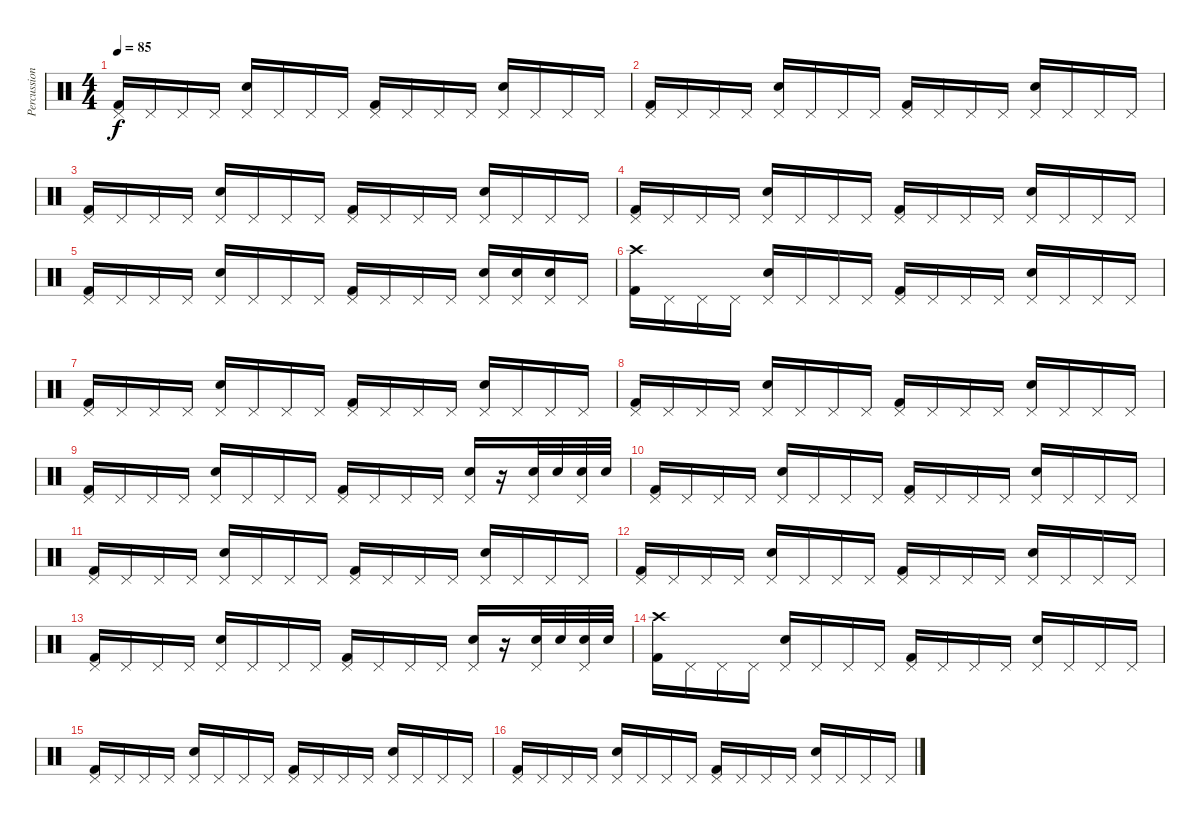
\track ("Percussions" "Percussion") {instrument percussion}
\staff {score}
\articulation defaults
\ts (4 4)
\tempo 85
\clef neutral
\ks c
("Pedal Hi-Hat (hit)" "Kick (hit) 2").16{dy f} "Pedal Hi-Hat (hit)".16 "Pedal Hi-Hat (hit)".16 "Pedal Hi-Hat (hit)".16 ("Pedal Hi-Hat (hit)" "Snare (hit) 2").16 "Pedal Hi-Hat (hit)".16 "Pedal Hi-Hat (hit)".16 "Pedal Hi-Hat (hit)".16 ("Pedal Hi-Hat (hit)" "Kick (hit) 2").16 "Pedal Hi-Hat (hit)".16 "Pedal Hi-Hat (hit)".16 "Pedal Hi-Hat (hit)".16 ("Pedal Hi-Hat (hit)" "Snare (hit) 2").16 "Pedal Hi-Hat (hit)".16 "Pedal Hi-Hat (hit)".16 "Pedal Hi-Hat (hit)".16 |
("Pedal Hi-Hat (hit)" "Kick (hit) 2").16 "Pedal Hi-Hat (hit)".16 "Pedal Hi-Hat (hit)".16 "Pedal Hi-Hat (hit)".16 ("Pedal Hi-Hat (hit)" "Snare (hit) 2").16 "Pedal Hi-Hat (hit)".16 "Pedal Hi-Hat (hit)".16 "Pedal Hi-Hat (hit)".16 ("Pedal Hi-Hat (hit)" "Kick (hit) 2").16 "Pedal Hi-Hat (hit)".16 "Pedal Hi-Hat (hit)".16 "Pedal Hi-Hat (hit)".16 ("Pedal Hi-Hat (hit)" "Snare (hit) 2").16 "Pedal Hi-Hat (hit)".16 "Pedal Hi-Hat (hit)".16 "Pedal Hi-Hat (hit)".16 |
("Pedal Hi-Hat (hit)" "Kick (hit) 2").16 "Pedal Hi-Hat (hit)".16 "Pedal Hi-Hat (hit)".16 "Pedal Hi-Hat (hit)".16 ("Pedal Hi-Hat (hit)" "Snare (hit) 2").16 "Pedal Hi-Hat (hit)".16 "Pedal Hi-Hat (hit)".16 "Pedal Hi-Hat (hit)".16 ("Pedal Hi-Hat (hit)" "Kick (hit) 2").16 "Pedal Hi-Hat (hit)".16 "Pedal Hi-Hat (hit)".16 "Pedal Hi-Hat (hit)".16 ("Pedal Hi-Hat (hit)" "Snare (hit) 2").16 "Pedal Hi-Hat (hit)".16 "Pedal Hi-Hat (hit)".16 "Pedal Hi-Hat (hit)".16 |
("Pedal Hi-Hat (hit)" "Kick (hit) 2").16 "Pedal Hi-Hat (hit)".16 "Pedal Hi-Hat (hit)".16 "Pedal Hi-Hat (hit)".16 ("Pedal Hi-Hat (hit)" "Snare (hit) 2").16 "Pedal Hi-Hat (hit)".16 "Pedal Hi-Hat (hit)".16 "Pedal Hi-Hat (hit)".16 ("Pedal Hi-Hat (hit)" "Kick (hit) 2").16 "Pedal Hi-Hat (hit)".16 "Pedal Hi-Hat (hit)".16 "Pedal Hi-Hat (hit)".16 ("Pedal Hi-Hat (hit)" "Snare (hit) 2").16 "Pedal Hi-Hat (hit)".16 "Pedal Hi-Hat (hit)".16 "Pedal Hi-Hat (hit)".16 |
("Pedal Hi-Hat (hit)" "Kick (hit) 2").16 "Pedal Hi-Hat (hit)".16 "Pedal Hi-Hat (hit)".16 "Pedal Hi-Hat (hit)".16 ("Pedal Hi-Hat (hit)" "Snare (hit) 2").16 "Pedal Hi-Hat (hit)".16 "Pedal Hi-Hat (hit)".16 "Pedal Hi-Hat (hit)".16 ("Pedal Hi-Hat (hit)" "Kick (hit) 2").16 "Pedal Hi-Hat (hit)".16 "Pedal Hi-Hat (hit)".16 "Pedal Hi-Hat (hit)".16 ("Pedal Hi-Hat (hit)" "Snare (hit) 2").16 ("Pedal Hi-Hat (hit)" "Snare (hit) 2").16 ("Pedal Hi-Hat (hit)" "Snare (hit) 2").16 "Pedal Hi-Hat (hit)".16 |
("Crash high (hit)" "Kick (hit) 2").16 "Pedal Hi-Hat (hit)".16 "Pedal Hi-Hat (hit)".16 "Pedal Hi-Hat (hit)".16 ("Pedal Hi-Hat (hit)" "Snare (hit) 2").16 "Pedal Hi-Hat (hit)".16 "Pedal Hi-Hat (hit)".16 "Pedal Hi-Hat (hit)".16 ("Pedal Hi-Hat (hit)" "Kick (hit) 2").16 "Pedal Hi-Hat (hit)".16 "Pedal Hi-Hat (hit)".16 "Pedal Hi-Hat (hit)".16 ("Pedal Hi-Hat (hit)" "Snare (hit) 2").16 "Pedal Hi-Hat (hit)".16 "Pedal Hi-Hat (hit)".16 "Pedal Hi-Hat (hit)".16 |
("Pedal Hi-Hat (hit)" "Kick (hit) 2").16 "Pedal Hi-Hat (hit)".16 "Pedal Hi-Hat (hit)".16 "Pedal Hi-Hat (hit)".16 ("Pedal Hi-Hat (hit)" "Snare (hit) 2").16 "Pedal Hi-Hat (hit)".16 "Pedal Hi-Hat (hit)".16 "Pedal Hi-Hat (hit)".16 ("Pedal Hi-Hat (hit)" "Kick (hit) 2").16 "Pedal Hi-Hat (hit)".16 "Pedal Hi-Hat (hit)".16 "Pedal Hi-Hat (hit)".16 ("Pedal Hi-Hat (hit)" "Snare (hit) 2").16 "Pedal Hi-Hat (hit)".16 "Pedal Hi-Hat (hit)".16 "Pedal Hi-Hat (hit)".16 |
("Pedal Hi-Hat (hit)" "Kick (hit) 2").16 "Pedal Hi-Hat (hit)".16 "Pedal Hi-Hat (hit)".16 "Pedal Hi-Hat (hit)".16 ("Pedal Hi-Hat (hit)" "Snare (hit) 2").16 "Pedal Hi-Hat (hit)".16 "Pedal Hi-Hat (hit)".16 "Pedal Hi-Hat (hit)".16 ("Pedal Hi-Hat (hit)" "Kick (hit) 2").16 "Pedal Hi-Hat (hit)".16 "Pedal Hi-Hat (hit)".16 "Pedal Hi-Hat (hit)".16 ("Pedal Hi-Hat (hit)" "Snare (hit) 2").16 "Pedal Hi-Hat (hit)".16 "Pedal Hi-Hat (hit)".16 "Pedal Hi-Hat (hit)".16 |
("Pedal Hi-Hat (hit)" "Kick (hit) 2").16 "Pedal Hi-Hat (hit)".16 "Pedal Hi-Hat (hit)".16 "Pedal Hi-Hat (hit)".16 ("Pedal Hi-Hat (hit)" "Snare (hit) 2").16 "Pedal Hi-Hat (hit)".16 "Pedal Hi-Hat (hit)".16 "Pedal Hi-Hat (hit)".16 ("Pedal Hi-Hat (hit)" "Kick (hit) 2").16 "Pedal Hi-Hat (hit)".16 "Pedal Hi-Hat (hit)".16 "Pedal Hi-Hat (hit)".16 ("Pedal Hi-Hat (hit)" "Snare (hit) 2").16 r.16 ("Pedal Hi-Hat (hit)" "Snare (hit) 2").32 "Snare (hit) 2".32 ("Pedal Hi-Hat (hit)" "Snare (hit) 2").32 "Snare (hit) 2".32 |
("Pedal Hi-Hat (hit)" "Kick (hit) 2").16 "Pedal Hi-Hat (hit)".16 "Pedal Hi-Hat (hit)".16 "Pedal Hi-Hat (hit)".16 ("Pedal Hi-Hat (hit)" "Snare (hit) 2").16 "Pedal Hi-Hat (hit)".16 "Pedal Hi-Hat (hit)".16 "Pedal Hi-Hat (hit)".16 ("Pedal Hi-Hat (hit)" "Kick (hit) 2").16 "Pedal Hi-Hat (hit)".16 "Pedal Hi-Hat (hit)".16 "Pedal Hi-Hat (hit)".16 ("Pedal Hi-Hat (hit)" "Snare (hit) 2").16 "Pedal Hi-Hat (hit)".16 "Pedal Hi-Hat (hit)".16 "Pedal Hi-Hat (hit)".16 |
("Pedal Hi-Hat (hit)" "Kick (hit) 2").16 "Pedal Hi-Hat (hit)".16 "Pedal Hi-Hat (hit)".16 "Pedal Hi-Hat (hit)".16 ("Pedal Hi-Hat (hit)" "Snare (hit) 2").16 "Pedal Hi-Hat (hit)".16 "Pedal Hi-Hat (hit)".16 "Pedal Hi-Hat (hit)".16 ("Pedal Hi-Hat (hit)" "Kick (hit) 2").16 "Pedal Hi-Hat (hit)".16 "Pedal Hi-Hat (hit)".16 "Pedal Hi-Hat (hit)".16 ("Pedal Hi-Hat (hit)" "Snare (hit) 2").16 "Pedal Hi-Hat (hit)".16 "Pedal Hi-Hat (hit)".16 "Pedal Hi-Hat (hit)".16 |
("Pedal Hi-Hat (hit)" "Kick (hit) 2").16 "Pedal Hi-Hat (hit)".16 "Pedal Hi-Hat (hit)".16 "Pedal Hi-Hat (hit)".16 ("Pedal Hi-Hat (hit)" "Snare (hit) 2").16 "Pedal Hi-Hat (hit)".16 "Pedal Hi-Hat (hit)".16 "Pedal Hi-Hat (hit)".16 ("Pedal Hi-Hat (hit)" "Kick (hit) 2").16 "Pedal Hi-Hat (hit)".16 "Pedal Hi-Hat (hit)".16 "Pedal Hi-Hat (hit)".16 ("Pedal Hi-Hat (hit)" "Snare (hit) 2").16 "Pedal Hi-Hat (hit)".16 "Pedal Hi-Hat (hit)".16 "Pedal Hi-Hat (hit)".16 |
("Pedal Hi-Hat (hit)" "Kick (hit) 2").16 "Pedal Hi-Hat (hit)".16 "Pedal Hi-Hat (hit)".16 "Pedal Hi-Hat (hit)".16 ("Pedal Hi-Hat (hit)" "Snare (hit) 2").16 "Pedal Hi-Hat (hit)".16 "Pedal Hi-Hat (hit)".16 "Pedal Hi-Hat (hit)".16 ("Pedal Hi-Hat (hit)" "Kick (hit) 2").16 "Pedal Hi-Hat (hit)".16 "Pedal Hi-Hat (hit)".16 "Pedal Hi-Hat (hit)".16 ("Pedal Hi-Hat (hit)" "Snare (hit) 2").16 r.16 ("Pedal Hi-Hat (hit)" "Snare (hit) 2").32 "Snare (hit) 2".32 ("Pedal Hi-Hat (hit)" "Snare (hit) 2").32 "Snare (hit) 2".32 |
("Crash high (hit)" "Kick (hit) 2").16 "Pedal Hi-Hat (hit)".16 "Pedal Hi-Hat (hit)".16 "Pedal Hi-Hat (hit)".16 ("Pedal Hi-Hat (hit)" "Snare (hit) 2").16 "Pedal Hi-Hat (hit)".16 "Pedal Hi-Hat (hit)".16 "Pedal Hi-Hat (hit)".16 ("Pedal Hi-Hat (hit)" "Kick (hit) 2").16 "Pedal Hi-Hat (hit)".16 "Pedal Hi-Hat (hit)".16 "Pedal Hi-Hat (hit)".16 ("Pedal Hi-Hat (hit)" "Snare (hit) 2").16 "Pedal Hi-Hat (hit)".16 "Pedal Hi-Hat (hit)".16 "Pedal Hi-Hat (hit)".16 |
("Pedal Hi-Hat (hit)" "Kick (hit) 2").16 "Pedal Hi-Hat (hit)".16 "Pedal Hi-Hat (hit)".16 "Pedal Hi-Hat (hit)".16 ("Pedal Hi-Hat (hit)" "Snare (hit) 2").16 "Pedal Hi-Hat (hit)".16 "Pedal Hi-Hat (hit)".16 "Pedal Hi-Hat (hit)".16 ("Pedal Hi-Hat (hit)" "Kick (hit) 2").16 "Pedal Hi-Hat (hit)".16 "Pedal Hi-Hat (hit)".16 "Pedal Hi-Hat (hit)".16 ("Pedal Hi-Hat (hit)" "Snare (hit) 2").16 "Pedal Hi-Hat (hit)".16 "Pedal Hi-Hat (hit)".16 "Pedal Hi-Hat (hit)".16 |
("Pedal Hi-Hat (hit)" "Kick (hit) 2").16 "Pedal Hi-Hat (hit)".16 "Pedal Hi-Hat (hit)".16 "Pedal Hi-Hat (hit)".16 ("Pedal Hi-Hat (hit)" "Snare (hit) 2").16 "Pedal Hi-Hat (hit)".16 "Pedal Hi-Hat (hit)".16 "Pedal Hi-Hat (hit)".16 ("Pedal Hi-Hat (hit)" "Kick (hit) 2").16 "Pedal Hi-Hat (hit)".16 "Pedal Hi-Hat (hit)".16 "Pedal Hi-Hat (hit)".16 ("Pedal Hi-Hat (hit)" "Snare (hit) 2").16 "Pedal Hi-Hat (hit)".16 "Pedal Hi-Hat (hit)".16 "Pedal Hi-Hat (hit)".16
